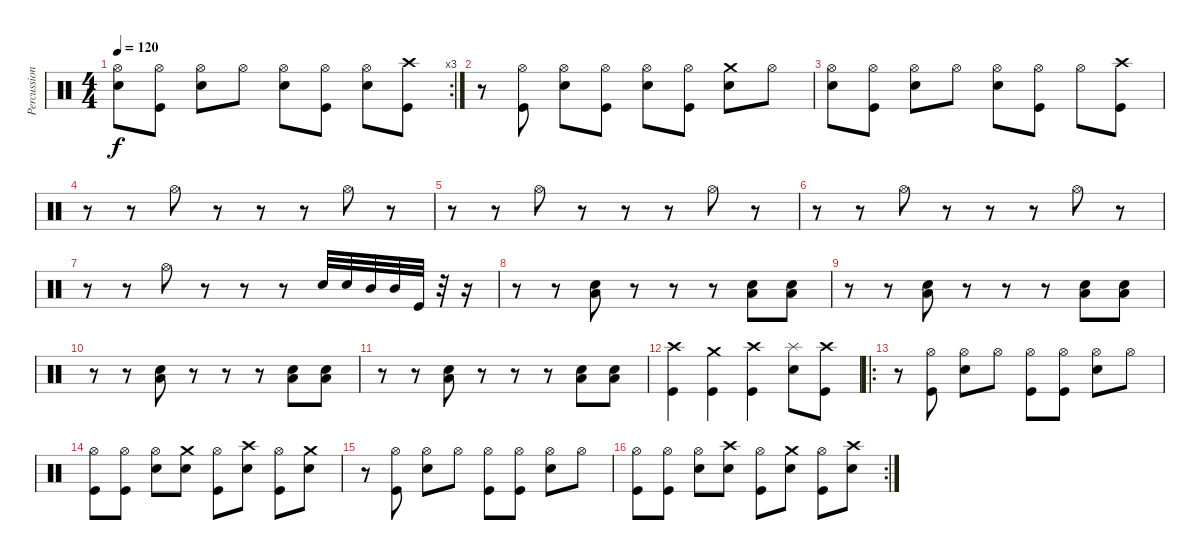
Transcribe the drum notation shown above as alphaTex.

\track ("Percussion" "Percussion") {instrument percussion}
\staff {score}
\articulation defaults
\rc 3
\ts (4 4)
\tempo 120
\clef neutral
\ks c
("Hi-Hat (open)" "Snare (hit) 2").8{dy f} ("Hi-Hat (open)" "Kick (hit)").8 ("Hi-Hat (open)" "Snare (hit) 2").8 "Hi-Hat (open)".8 ("Hi-Hat (open)" "Snare (hit) 2").8 ("Hi-Hat (open)" "Kick (hit)").8 ("Hi-Hat (open)" "Snare (hit) 2").8 ("Crash high (hit)" "Kick (hit)").8 |
r.8 ("Hi-Hat (open)" "Kick (hit)").8 ("Hi-Hat (open)" "Snare (hit) 2").8 ("Hi-Hat (open)" "Kick (hit)").8 ("Hi-Hat (open)" "Snare (hit) 2").8 ("Hi-Hat (open)" "Kick (hit)").8 ("Crash medium (hit)" "Snare (hit) 2").8 "Hi-Hat (open)".8 |
("Hi-Hat (open)" "Snare (hit) 2").8 ("Hi-Hat (open)" "Kick (hit)").8 ("Hi-Hat (open)" "Snare (hit) 2").8 "Hi-Hat (open)".8 ("Hi-Hat (open)" "Snare (hit) 2").8 ("Hi-Hat (open)" "Kick (hit)").8 "Hi-Hat (open)".8 ("Crash high (hit)" "Kick (hit)").8 |
r.8 r.8 "Hi-Hat (open)".8 r.8 r.8 r.8 "Hi-Hat (open)".8 r.8 |
r.8 r.8 "Hi-Hat (open)".8 r.8 r.8 r.8 "Hi-Hat (open)".8 r.8 |
r.8 r.8 "Hi-Hat (open)".8 r.8 r.8 r.8 "Hi-Hat (open)".8 r.8 |
r.8 r.8 "Hi-Hat (open)".8 r.8 r.8 r.8 "Snare (hit) 2".32 "Snare (hit) 2".32 "Mid Tom (hit)".32 "Mid Tom (hit)".32 "Kick (hit)".32 r.32 r.16 |
r.8 r.8 ("Snare (hit) 2" "Low Tom (hit)").8 r.8 r.8 r.8 ("Snare (hit) 2" "Low Tom (hit)").8 ("Snare (hit) 2" "Low Tom (hit)").8 |
r.8 r.8 ("Snare (hit) 2" "Low Tom (hit)").8 r.8 r.8 r.8 ("Snare (hit) 2" "Low Tom (hit)").8 ("Snare (hit) 2" "Low Tom (hit)").8 |
r.8 r.8 ("Snare (hit) 2" "Low Tom (hit)").8 r.8 r.8 r.8 ("Snare (hit) 2" "Low Tom (hit)").8 ("Snare (hit) 2" "Low Tom (hit)").8 |
r.8 r.8 ("Snare (hit) 2" "Low Tom (hit)").8 r.8 r.8 r.8 ("Snare (hit) 2" "Low Tom (hit)").8 ("Snare (hit) 2" "Low Tom (hit)").8 |
("Crash high (hit)" "Kick (hit)").4 ("Crash medium (hit)" "Kick (hit)").4 ("Crash high (hit)" "Kick (hit)").4 ("Splash (hit)" "Snare (hit) 2").8 ("Crash high (hit)" "Kick (hit)").8 |
\ro
r.8 ("Hi-Hat (open)" "Kick (hit)").8 ("Hi-Hat (open)" "Snare (hit) 2").8 "Hi-Hat (open)".8 ("Hi-Hat (open)" "Kick (hit)").8 ("Hi-Hat (open)" "Kick (hit)").8 ("Hi-Hat (open)" "Snare (hit) 2").8 "Hi-Hat (open)".8 |
("Hi-Hat (open)" "Kick (hit)").8 ("Hi-Hat (open)" "Kick (hit)").8 ("Hi-Hat (open)" "Snare (hit) 2").8 ("Crash medium (hit)" "Snare (hit) 2").8 ("Hi-Hat (open)" "Kick (hit)").8 ("Crash high (hit)" "Snare (hit) 2").8 ("Hi-Hat (open)" "Kick (hit)").8 ("Crash medium (hit)" "Snare (hit) 2").8 |
r.8 ("Hi-Hat (open)" "Kick (hit)").8 ("Hi-Hat (open)" "Snare (hit) 2").8 "Hi-Hat (open)".8 ("Hi-Hat (open)" "Kick (hit)").8 ("Hi-Hat (open)" "Kick (hit)").8 ("Hi-Hat (open)" "Snare (hit) 2").8 "Hi-Hat (open)".8 |
\rc 2
("Hi-Hat (open)" "Kick (hit)").8 ("Hi-Hat (open)" "Kick (hit)").8 ("Hi-Hat (open)" "Snare (hit) 2").8 ("Crash high (hit)" "Snare (hit) 2").8 ("Hi-Hat (open)" "Kick (hit)").8 ("Crash medium (hit)" "Snare (hit) 2").8 ("Hi-Hat (open)" "Kick (hit)").8 ("Crash high (hit)" "Snare (hit) 2").8
